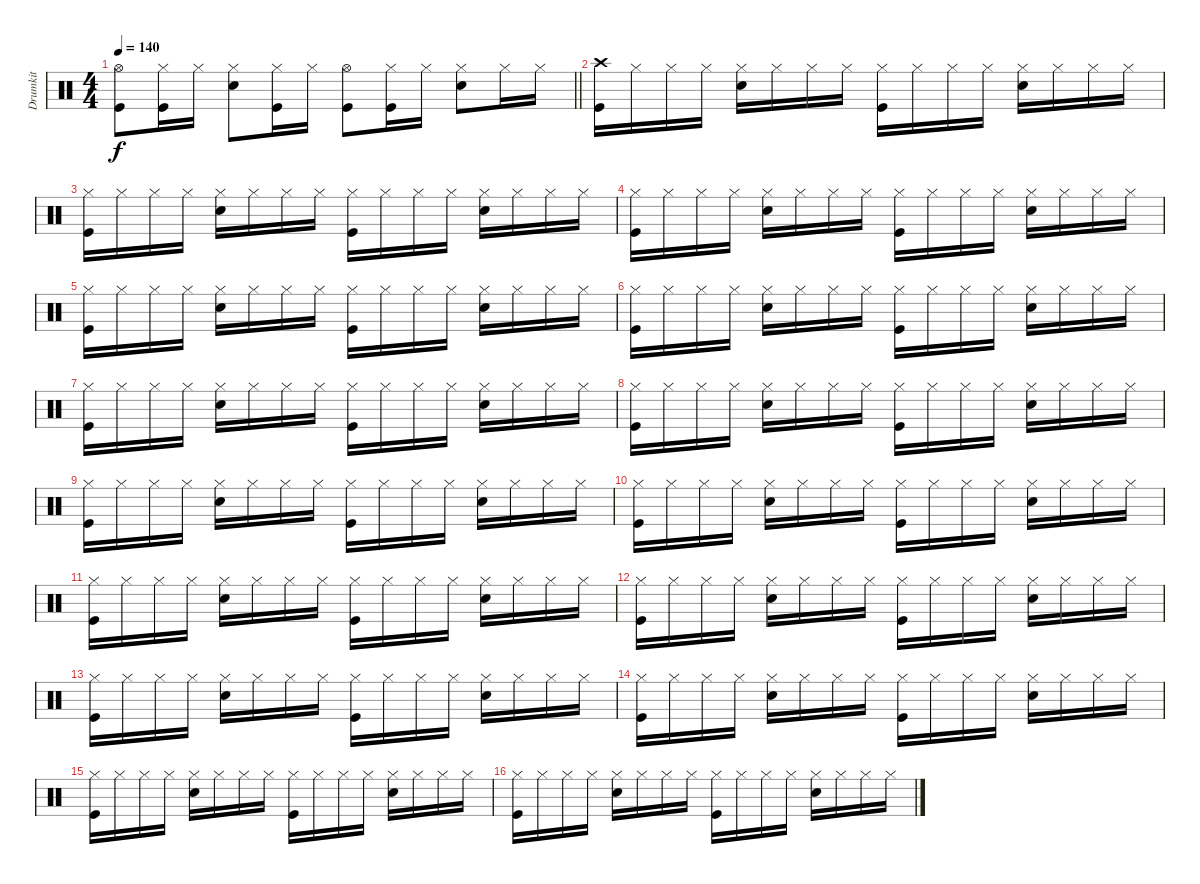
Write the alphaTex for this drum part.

\track ("Drumkit" "Drumkit") {instrument percussion}
\staff {score}
\articulation defaults
\ts (4 4)
\tempo 140
\clef neutral
\barLineRight lightlight
\ks c
("Kick (hit)" "Hi-Hat (open)").8{dy f} ("Hi-Hat (closed)" "Kick (hit)").16 "Hi-Hat (closed)".16 ("Hi-Hat (closed)" "Snare (hit) 2").8 ("Hi-Hat (closed)" "Kick (hit)").16 "Hi-Hat (closed)".16 ("Hi-Hat (open)" "Kick (hit)").8 ("Hi-Hat (closed)" "Kick (hit)").16 "Hi-Hat (closed)".16 ("Hi-Hat (closed)" "Snare (hit) 2").8 "Hi-Hat (closed)".16 "Hi-Hat (closed)".16 |
("Crash high (hit)" "Kick (hit)").16 "Hi-Hat (closed)".16 "Hi-Hat (closed)".16 "Hi-Hat (closed)".16 ("Hi-Hat (closed)" "Snare (hit) 2").16 "Hi-Hat (closed)".16 "Hi-Hat (closed)".16 "Hi-Hat (closed)".16 ("Hi-Hat (closed)" "Kick (hit)").16 "Hi-Hat (closed)".16 "Hi-Hat (closed)".16 "Hi-Hat (closed)".16 ("Hi-Hat (closed)" "Snare (hit) 2").16 "Hi-Hat (closed)".16 "Hi-Hat (closed)".16 "Hi-Hat (closed)".16 |
("Hi-Hat (closed)" "Kick (hit)").16 "Hi-Hat (closed)".16 "Hi-Hat (closed)".16 "Hi-Hat (closed)".16 ("Hi-Hat (closed)" "Snare (hit) 2").16 "Hi-Hat (closed)".16 "Hi-Hat (closed)".16 "Hi-Hat (closed)".16 ("Hi-Hat (closed)" "Kick (hit)").16 "Hi-Hat (closed)".16 "Hi-Hat (closed)".16 "Hi-Hat (closed)".16 ("Hi-Hat (closed)" "Snare (hit) 2").16 "Hi-Hat (closed)".16 "Hi-Hat (closed)".16 "Hi-Hat (closed)".16 |
("Hi-Hat (closed)" "Kick (hit)").16 "Hi-Hat (closed)".16 "Hi-Hat (closed)".16 "Hi-Hat (closed)".16 ("Hi-Hat (closed)" "Snare (hit) 2").16 "Hi-Hat (closed)".16 "Hi-Hat (closed)".16 "Hi-Hat (closed)".16 ("Hi-Hat (closed)" "Kick (hit)").16 "Hi-Hat (closed)".16 "Hi-Hat (closed)".16 "Hi-Hat (closed)".16 ("Hi-Hat (closed)" "Snare (hit) 2").16 "Hi-Hat (closed)".16 "Hi-Hat (closed)".16 "Hi-Hat (closed)".16 |
("Hi-Hat (closed)" "Kick (hit)").16 "Hi-Hat (closed)".16 "Hi-Hat (closed)".16 "Hi-Hat (closed)".16 ("Hi-Hat (closed)" "Snare (hit) 2").16 "Hi-Hat (closed)".16 "Hi-Hat (closed)".16 "Hi-Hat (closed)".16 ("Hi-Hat (closed)" "Kick (hit)").16 "Hi-Hat (closed)".16 "Hi-Hat (closed)".16 "Hi-Hat (closed)".16 ("Hi-Hat (closed)" "Snare (hit) 2").16 "Hi-Hat (closed)".16 "Hi-Hat (closed)".16 "Hi-Hat (closed)".16 |
("Hi-Hat (closed)" "Kick (hit)").16 "Hi-Hat (closed)".16 "Hi-Hat (closed)".16 "Hi-Hat (closed)".16 ("Hi-Hat (closed)" "Snare (hit) 2").16 "Hi-Hat (closed)".16 "Hi-Hat (closed)".16 "Hi-Hat (closed)".16 ("Hi-Hat (closed)" "Kick (hit)").16 "Hi-Hat (closed)".16 "Hi-Hat (closed)".16 "Hi-Hat (closed)".16 ("Hi-Hat (closed)" "Snare (hit) 2").16 "Hi-Hat (closed)".16 "Hi-Hat (closed)".16 "Hi-Hat (closed)".16 |
("Hi-Hat (closed)" "Kick (hit)").16 "Hi-Hat (closed)".16 "Hi-Hat (closed)".16 "Hi-Hat (closed)".16 ("Hi-Hat (closed)" "Snare (hit) 2").16 "Hi-Hat (closed)".16 "Hi-Hat (closed)".16 "Hi-Hat (closed)".16 ("Hi-Hat (closed)" "Kick (hit)").16 "Hi-Hat (closed)".16 "Hi-Hat (closed)".16 "Hi-Hat (closed)".16 ("Hi-Hat (closed)" "Snare (hit) 2").16 "Hi-Hat (closed)".16 "Hi-Hat (closed)".16 "Hi-Hat (closed)".16 |
("Hi-Hat (closed)" "Kick (hit)").16 "Hi-Hat (closed)".16 "Hi-Hat (closed)".16 "Hi-Hat (closed)".16 ("Hi-Hat (closed)" "Snare (hit) 2").16 "Hi-Hat (closed)".16 "Hi-Hat (closed)".16 "Hi-Hat (closed)".16 ("Hi-Hat (closed)" "Kick (hit)").16 "Hi-Hat (closed)".16 "Hi-Hat (closed)".16 "Hi-Hat (closed)".16 ("Hi-Hat (closed)" "Snare (hit) 2").16 "Hi-Hat (closed)".16 "Hi-Hat (closed)".16 "Hi-Hat (closed)".16 |
("Hi-Hat (closed)" "Kick (hit)").16 "Hi-Hat (closed)".16 "Hi-Hat (closed)".16 "Hi-Hat (closed)".16 ("Hi-Hat (closed)" "Snare (hit) 2").16 "Hi-Hat (closed)".16 "Hi-Hat (closed)".16 "Hi-Hat (closed)".16 ("Hi-Hat (closed)" "Kick (hit)").16 "Hi-Hat (closed)".16 "Hi-Hat (closed)".16 "Hi-Hat (closed)".16 ("Hi-Hat (closed)" "Snare (hit) 2").16 "Hi-Hat (closed)".16 "Hi-Hat (closed)".16 "Hi-Hat (closed)".16 |
("Hi-Hat (closed)" "Kick (hit)").16 "Hi-Hat (closed)".16 "Hi-Hat (closed)".16 "Hi-Hat (closed)".16 ("Hi-Hat (closed)" "Snare (hit) 2").16 "Hi-Hat (closed)".16 "Hi-Hat (closed)".16 "Hi-Hat (closed)".16 ("Hi-Hat (closed)" "Kick (hit)").16 "Hi-Hat (closed)".16 "Hi-Hat (closed)".16 "Hi-Hat (closed)".16 ("Hi-Hat (closed)" "Snare (hit) 2").16 "Hi-Hat (closed)".16 "Hi-Hat (closed)".16 "Hi-Hat (closed)".16 |
("Hi-Hat (closed)" "Kick (hit)").16 "Hi-Hat (closed)".16 "Hi-Hat (closed)".16 "Hi-Hat (closed)".16 ("Hi-Hat (closed)" "Snare (hit) 2").16 "Hi-Hat (closed)".16 "Hi-Hat (closed)".16 "Hi-Hat (closed)".16 ("Hi-Hat (closed)" "Kick (hit)").16 "Hi-Hat (closed)".16 "Hi-Hat (closed)".16 "Hi-Hat (closed)".16 ("Hi-Hat (closed)" "Snare (hit) 2").16 "Hi-Hat (closed)".16 "Hi-Hat (closed)".16 "Hi-Hat (closed)".16 |
("Hi-Hat (closed)" "Kick (hit)").16 "Hi-Hat (closed)".16 "Hi-Hat (closed)".16 "Hi-Hat (closed)".16 ("Hi-Hat (closed)" "Snare (hit) 2").16 "Hi-Hat (closed)".16 "Hi-Hat (closed)".16 "Hi-Hat (closed)".16 ("Hi-Hat (closed)" "Kick (hit)").16 "Hi-Hat (closed)".16 "Hi-Hat (closed)".16 "Hi-Hat (closed)".16 ("Hi-Hat (closed)" "Snare (hit) 2").16 "Hi-Hat (closed)".16 "Hi-Hat (closed)".16 "Hi-Hat (closed)".16 |
("Hi-Hat (closed)" "Kick (hit)").16 "Hi-Hat (closed)".16 "Hi-Hat (closed)".16 "Hi-Hat (closed)".16 ("Hi-Hat (closed)" "Snare (hit) 2").16 "Hi-Hat (closed)".16 "Hi-Hat (closed)".16 "Hi-Hat (closed)".16 ("Hi-Hat (closed)" "Kick (hit)").16 "Hi-Hat (closed)".16 "Hi-Hat (closed)".16 "Hi-Hat (closed)".16 ("Hi-Hat (closed)" "Snare (hit) 2").16 "Hi-Hat (closed)".16 "Hi-Hat (closed)".16 "Hi-Hat (closed)".16 |
("Hi-Hat (closed)" "Kick (hit)").16 "Hi-Hat (closed)".16 "Hi-Hat (closed)".16 "Hi-Hat (closed)".16 ("Hi-Hat (closed)" "Snare (hit) 2").16 "Hi-Hat (closed)".16 "Hi-Hat (closed)".16 "Hi-Hat (closed)".16 ("Hi-Hat (closed)" "Kick (hit)").16 "Hi-Hat (closed)".16 "Hi-Hat (closed)".16 "Hi-Hat (closed)".16 ("Hi-Hat (closed)" "Snare (hit) 2").16 "Hi-Hat (closed)".16 "Hi-Hat (closed)".16 "Hi-Hat (closed)".16 |
("Hi-Hat (closed)" "Kick (hit)").16 "Hi-Hat (closed)".16 "Hi-Hat (closed)".16 "Hi-Hat (closed)".16 ("Hi-Hat (closed)" "Snare (hit) 2").16 "Hi-Hat (closed)".16 "Hi-Hat (closed)".16 "Hi-Hat (closed)".16 ("Hi-Hat (closed)" "Kick (hit)").16 "Hi-Hat (closed)".16 "Hi-Hat (closed)".16 "Hi-Hat (closed)".16 ("Hi-Hat (closed)" "Snare (hit) 2").16 "Hi-Hat (closed)".16 "Hi-Hat (closed)".16 "Hi-Hat (closed)".16 |
("Hi-Hat (closed)" "Kick (hit)").16 "Hi-Hat (closed)".16 "Hi-Hat (closed)".16 "Hi-Hat (closed)".16 ("Hi-Hat (closed)" "Snare (hit) 2").16 "Hi-Hat (closed)".16 "Hi-Hat (closed)".16 "Hi-Hat (closed)".16 ("Hi-Hat (closed)" "Kick (hit)").16 "Hi-Hat (closed)".16 "Hi-Hat (closed)".16 "Hi-Hat (closed)".16 ("Hi-Hat (closed)" "Snare (hit) 2").16 "Hi-Hat (closed)".16 "Hi-Hat (closed)".16 "Hi-Hat (closed)".16
